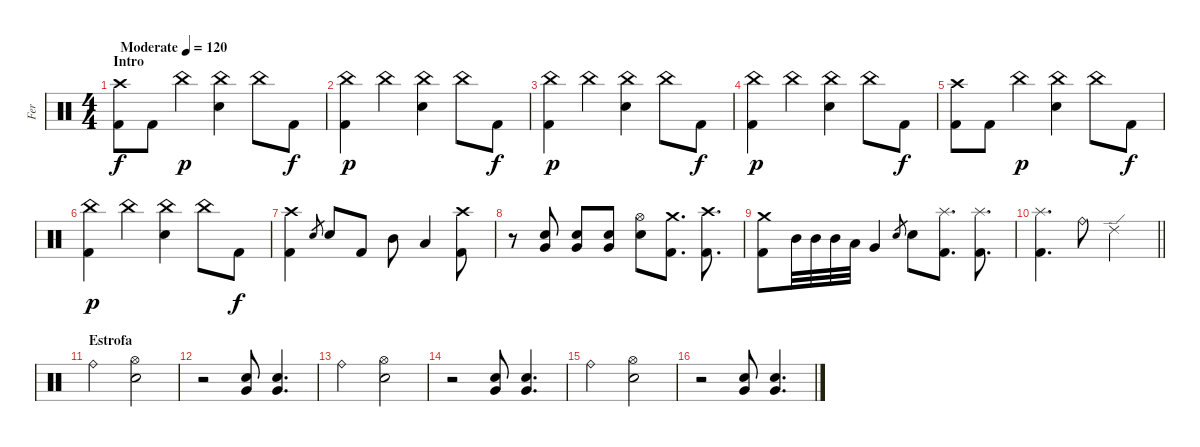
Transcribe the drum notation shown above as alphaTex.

\track ("Fer" "Fer") {instrument percussion}
\staff {score}
\articulation defaults
\ts (4 4)
\section ("" "Intro")
\tempo (120 "Moderate")
\clef neutral
\ks c
("Crash high (hit)" "Kick (hit) 2").8{dy f} "Kick (hit) 2".8 "China (hit)".4{dy p} ("China (hit)" "Snare (hit) 2").4 "China (hit)".8 "Kick (hit) 2".8{dy f} |
("China (hit)" "Kick (hit) 2").4{dy p} "China (hit)".4 ("China (hit)" "Snare (hit) 2").4 "China (hit)".8 "Kick (hit) 2".8{dy f} |
("China (hit)" "Kick (hit) 2").4{dy p} "China (hit)".4 ("China (hit)" "Snare (hit) 2").4 "China (hit)".8 "Kick (hit) 2".8{dy f} |
("China (hit)" "Kick (hit) 2").4{dy p} "China (hit)".4 ("China (hit)" "Snare (hit) 2").4 "China (hit)".8 "Kick (hit) 2".8{dy f} |
("Crash high (hit)" "Kick (hit) 2").8 "Kick (hit) 2".8 "China (hit)".4{dy p} ("China (hit)" "Snare (hit) 2").4 "China (hit)".8 "Kick (hit) 2".8{dy f} |
("China (hit)" "Kick (hit) 2").4{dy p} "China (hit)".4 ("China (hit)" "Snare (hit) 2").4 "China (hit)".8 "Kick (hit) 2".8{dy f} |
("Crash high (hit)" "Kick (hit) 2").4 "Snare (hit) 2".8{gr} "Snare (hit) 2".8 "Kick (hit) 2".8 "Mid Tom (hit)".8 "Low Tom (hit)".4 ("Crash high (hit)" "Kick (hit) 2").8 |
r.8 ("Snare (hit) 2" "Very Low Tom (hit)").8 ("Snare (hit) 2" "Very Low Tom (hit)").8 ("Snare (hit) 2" "Very Low Tom (hit)").8 ("Hi-Hat (open)" "Snare (hit) 2").8 ("Crash medium (hit)" "Kick (hit) 2").8{d} ("Crash high (hit)" "Kick (hit) 2").8{d} |
("Crash medium (hit)" "Kick (hit) 2").8 "Mid Tom (hit)".32 "Mid Tom (hit)".32 "Mid Tom (hit)".32 "Low Tom (hit)".32 "Very Low Tom (hit)".4 "Snare (hit) 2".8{gr} "Snare (hit) 2".8 ("Splash (hit)" "Kick (hit) 2").8{d} ("Splash (hit)" "Kick (hit) 2").8{d} |
\barLineRight lightlight
("Splash (hit)" "Kick (hit) 2").4{d} "Ride (bell)".8 "Ride (edge) 2".2 |
\section ("" "Estrofa")
"Ride (bell)".2 ("Hi-Hat (open)" "Snare (hit) 2").2 |
r.2 ("Snare (hit) 2" "Very Low Tom (hit)").8 ("Snare (hit) 2" "Very Low Tom (hit)").4{d} |
"Ride (bell)".2 ("Hi-Hat (open)" "Snare (hit) 2").2 |
r.2 ("Snare (hit) 2" "Very Low Tom (hit)").8 ("Snare (hit) 2" "Very Low Tom (hit)").4{d} |
"Ride (bell)".2 ("Hi-Hat (open)" "Snare (hit) 2").2 |
r.2 ("Snare (hit) 2" "Very Low Tom (hit)").8 ("Snare (hit) 2" "Very Low Tom (hit)").4{d}
